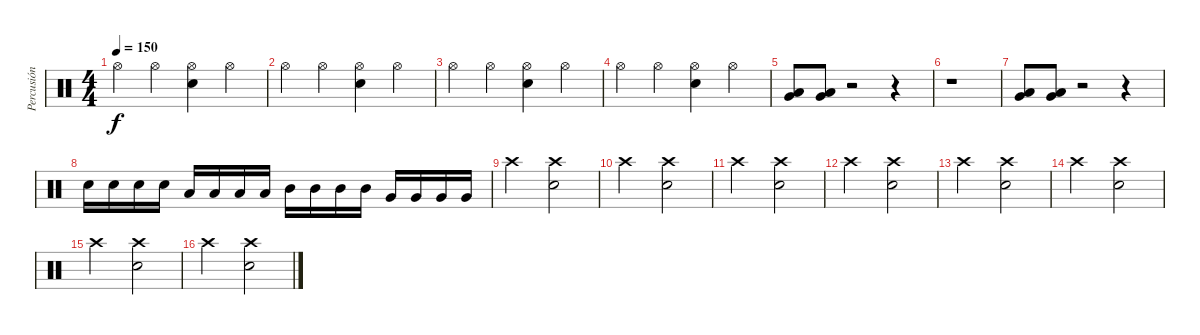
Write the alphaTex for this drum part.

\track ("Percusión" "Percusión") {instrument percussion}
\staff {score}
\articulation defaults
\ts (4 4)
\tempo 150
\clef neutral
\ks c "Hi-Hat (open)".4{dy f} "Hi-Hat (open)".4
("Hi-Hat (open)" "Snare (hit) 2").4 "Hi-Hat (open)".4 |
"Hi-Hat (open)".4 "Hi-Hat (open)".4 ("Hi-Hat (open)" "Snare (hit) 2").4 "Hi-Hat (open)".4 |
"Hi-Hat (open)".4 "Hi-Hat (open)".4 ("Hi-Hat (open)" "Snare (hit) 2").4 "Hi-Hat (open)".4 |
"Hi-Hat (open)".4 "Hi-Hat (open)".4 ("Hi-Hat (open)" "Snare (hit) 2").4 "Hi-Hat (open)".4 |
("Low Floor Tom (hit)" "Very Low Tom (hit)").8 ("Low Floor Tom (hit)" "Very Low Tom (hit)").8 r.2 r.4 |
r.1 |
("Low Floor Tom (hit)" "Very Low Tom (hit)").8 ("Low Floor Tom (hit)" "Very Low Tom (hit)").8 r.2 r.4 |
"Snare (hit) 2".16 "Snare (hit) 2".16 "Snare (hit) 2".16 "Snare (hit) 2".16 "Low Tom (hit)".16 "Low Tom (hit)".16 "Low Tom (hit)".16 "Low Tom (hit)".16 "Mid Tom (hit)".16 "Mid Tom (hit)".16 "Mid Tom (hit)".16 "Mid Tom (hit)".16 "Very Low Tom (hit)".16 "Very Low Tom (hit)".16 "Very Low Tom (hit)".16 "Very Low Tom (hit)".16 |
"Crash high (hit)".2 ("Snare (hit) 2" "Crash high (hit)").2 |
"Crash high (hit)".2 ("Snare (hit) 2" "Crash high (hit)").2 |
"Crash high (hit)".2 ("Snare (hit) 2" "Crash high (hit)").2 |
"Crash high (hit)".2 ("Snare (hit) 2" "Crash high (hit)").2 |
"Crash high (hit)".2 ("Snare (hit) 2" "Crash high (hit)").2 |
"Crash high (hit)".2 ("Snare (hit) 2" "Crash high (hit)").2 |
"Crash high (hit)".2 ("Snare (hit) 2" "Crash high (hit)").2 |
"Crash high (hit)".2 ("Snare (hit) 2" "Crash high (hit)").2
